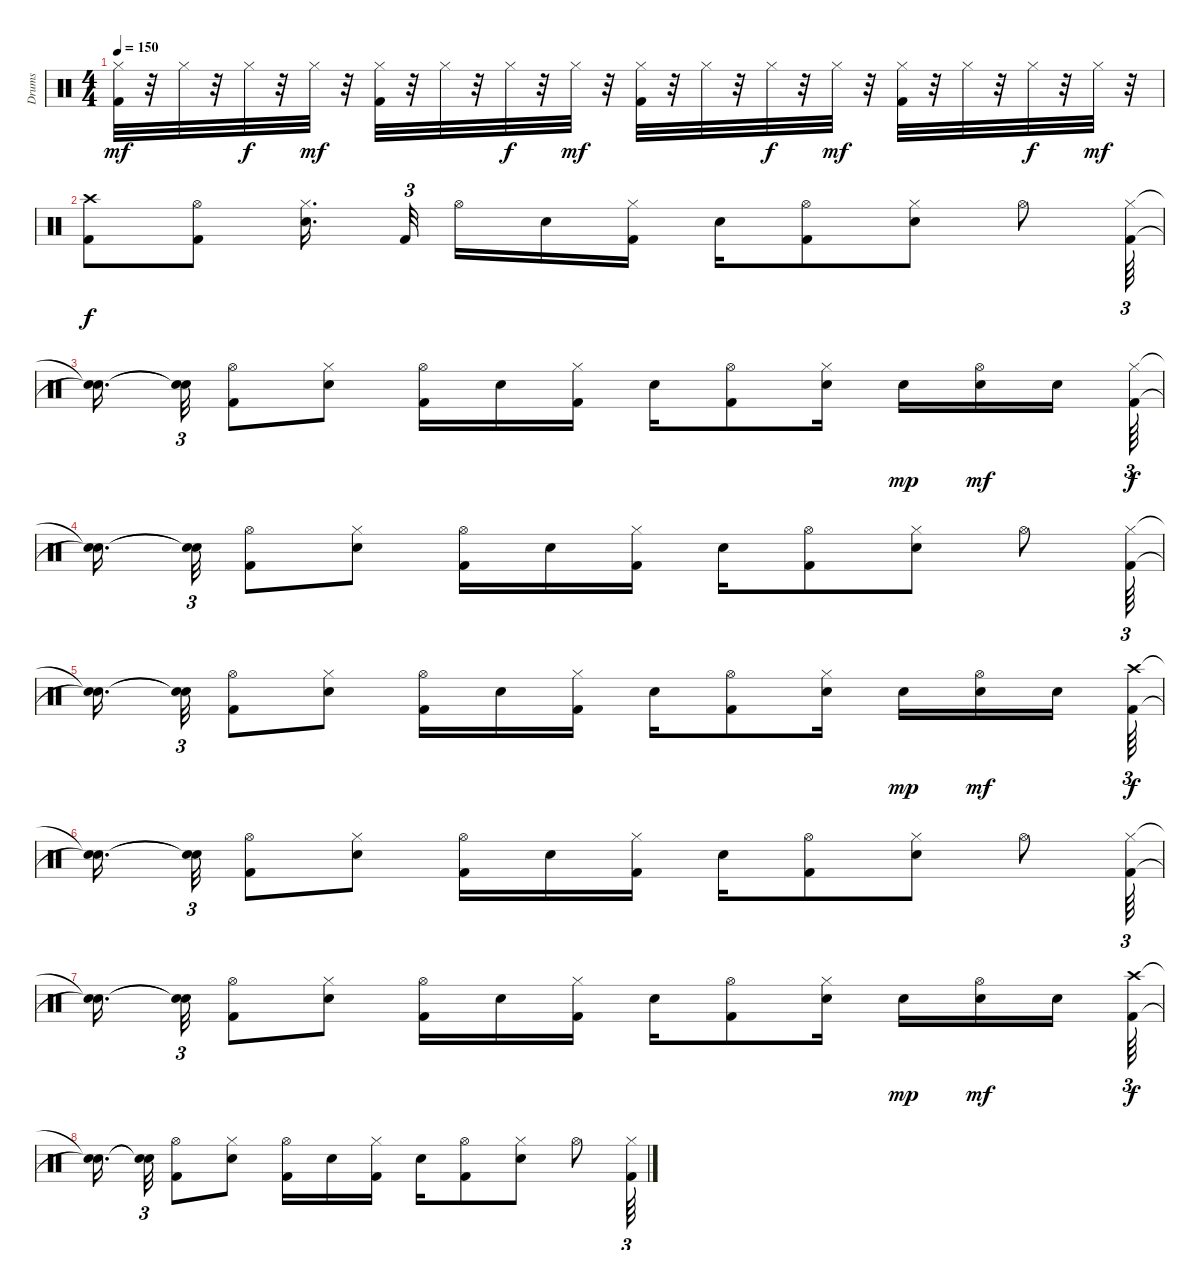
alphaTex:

\track ("Drums" "Drums") {instrument percussion}
\staff {score}
\articulation defaults
\ts (4 4)
\tempo 150
\clef neutral
\ks c
("Hi-Hat (closed)" "Kick (hit) 2").32{dy mf} r.32 "Hi-Hat (closed)".32 r.32 "Hi-Hat (closed)".32{dy f} r.32 "Hi-Hat (closed)".32{dy mf} r.32 ("Hi-Hat (closed)" "Kick (hit) 2").32 r.32 "Hi-Hat (closed)".32 r.32 "Hi-Hat (closed)".32{dy f} r.32 "Hi-Hat (closed)".32{dy mf} r.32 ("Hi-Hat (closed)" "Kick (hit) 2").32 r.32 "Hi-Hat (closed)".32 r.32 "Hi-Hat (closed)".32{dy f} r.32 "Hi-Hat (closed)".32{dy mf} r.32 ("Hi-Hat (closed)" "Kick (hit) 2").32 r.32 "Hi-Hat (closed)".32 r.32 "Hi-Hat (closed)".32{dy f} r.32 "Hi-Hat (closed)".32{dy mf} r.32 |
("Crash high (hit)" "Kick (hit) 2").8{dy f} ("Hi-Hat (open)" "Kick (hit) 2").8 ("Hi-Hat (closed)" "Electric Snare (hit)").16{d} "Kick (hit) 2".32{tu (3 2)} "Hi-Hat (open)".16 "Electric Snare (hit)".16 ("Kick (hit) 2" "Hi-Hat (closed)").16 "Electric Snare (hit)".16 ("Hi-Hat (open)" "Kick (hit) 2").8 ("Electric Snare (hit)" "Hi-Hat (closed)").8 "Hi-Hat (open)".8 ("Hi-Hat (closed)" "Kick (hit) 2").64{tu (3 2)} |
("Snare (hit)"{t} "Snare (hit)"{t}).16{d} ("Snare (hit)"{t} "Snare (hit)"{t}).32{tu (3 2)} ("Hi-Hat (open)" "Kick (hit) 2").8 ("Electric Snare (hit)" "Hi-Hat (closed)").8 ("Hi-Hat (open)" "Kick (hit) 2").16 "Electric Snare (hit)".16 ("Hi-Hat (closed)" "Kick (hit) 2").16 "Electric Snare (hit)".16 ("Hi-Hat (open)" "Kick (hit) 2").8 ("Hi-Hat (closed)" "Electric Snare (hit)").16 "Electric Snare (hit)".16{dy mp} ("Hi-Hat (open)" "Electric Snare (hit)").16{dy mf} "Electric Snare (hit)".16 ("Hi-Hat (closed)" "Kick (hit) 2").64{tu (3 2) dy f} |
("Snare (hit)"{t} "Snare (hit)"{t}).16{d} ("Snare (hit)"{t} "Snare (hit)"{t}).32{tu (3 2)} ("Hi-Hat (open)" "Kick (hit) 2").8 ("Hi-Hat (closed)" "Electric Snare (hit)").8 ("Kick (hit) 2" "Hi-Hat (open)").16 "Electric Snare (hit)".16 ("Kick (hit) 2" "Hi-Hat (closed)").16 "Electric Snare (hit)".16 ("Hi-Hat (open)" "Kick (hit) 2").8 ("Electric Snare (hit)" "Hi-Hat (closed)").8 "Hi-Hat (open)".8 ("Hi-Hat (closed)" "Kick (hit) 2").64{tu (3 2)} |
("Snare (hit)"{t} "Snare (hit)"{t}).16{d} ("Snare (hit)"{t} "Snare (hit)"{t}).32{tu (3 2)} ("Hi-Hat (open)" "Kick (hit) 2").8 ("Electric Snare (hit)" "Hi-Hat (closed)").8 ("Hi-Hat (open)" "Kick (hit) 2").16 "Electric Snare (hit)".16 ("Hi-Hat (closed)" "Kick (hit) 2").16 "Electric Snare (hit)".16 ("Hi-Hat (open)" "Kick (hit) 2").8 ("Hi-Hat (closed)" "Electric Snare (hit)").16 "Electric Snare (hit)".16{dy mp} ("Hi-Hat (open)" "Electric Snare (hit)").16{dy mf} "Electric Snare (hit)".16 ("Crash high (hit)" "Kick (hit) 2").64{tu (3 2) dy f} |
("Snare (hit)"{t} "Snare (hit)"{t}).16{d} ("Snare (hit)"{t} "Snare (hit)"{t}).32{tu (3 2)} ("Hi-Hat (open)" "Kick (hit) 2").8 ("Hi-Hat (closed)" "Electric Snare (hit)").8 ("Kick (hit) 2" "Hi-Hat (open)").16 "Electric Snare (hit)".16 ("Kick (hit) 2" "Hi-Hat (closed)").16 "Electric Snare (hit)".16 ("Hi-Hat (open)" "Kick (hit) 2").8 ("Electric Snare (hit)" "Hi-Hat (closed)").8 "Hi-Hat (open)".8 ("Hi-Hat (closed)" "Kick (hit) 2").64{tu (3 2)} |
("Snare (hit)"{t} "Snare (hit)"{t}).16{d} ("Snare (hit)"{t} "Snare (hit)"{t}).32{tu (3 2)} ("Hi-Hat (open)" "Kick (hit) 2").8 ("Electric Snare (hit)" "Hi-Hat (closed)").8 ("Hi-Hat (open)" "Kick (hit) 2").16 "Electric Snare (hit)".16 ("Hi-Hat (closed)" "Kick (hit) 2").16 "Electric Snare (hit)".16 ("Hi-Hat (open)" "Kick (hit) 2").8 ("Hi-Hat (closed)" "Electric Snare (hit)").16 "Electric Snare (hit)".16{dy mp} ("Hi-Hat (open)" "Electric Snare (hit)").16{dy mf} "Electric Snare (hit)".16 ("Crash high (hit)" "Kick (hit) 2").64{tu (3 2) dy f} |
("Snare (hit)"{t} "Snare (hit)"{t}).16{d} ("Snare (hit)"{t} "Snare (hit)"{t}).32{tu (3 2)} ("Hi-Hat (open)" "Kick (hit) 2").8 ("Hi-Hat (closed)" "Electric Snare (hit)").8 ("Kick (hit) 2" "Hi-Hat (open)").16 "Electric Snare (hit)".16 ("Kick (hit) 2" "Hi-Hat (closed)").16 "Electric Snare (hit)".16 ("Hi-Hat (open)" "Kick (hit) 2").8 ("Electric Snare (hit)" "Hi-Hat (closed)").8 "Hi-Hat (open)".8 ("Hi-Hat (closed)" "Kick (hit) 2").64{tu (3 2)}
